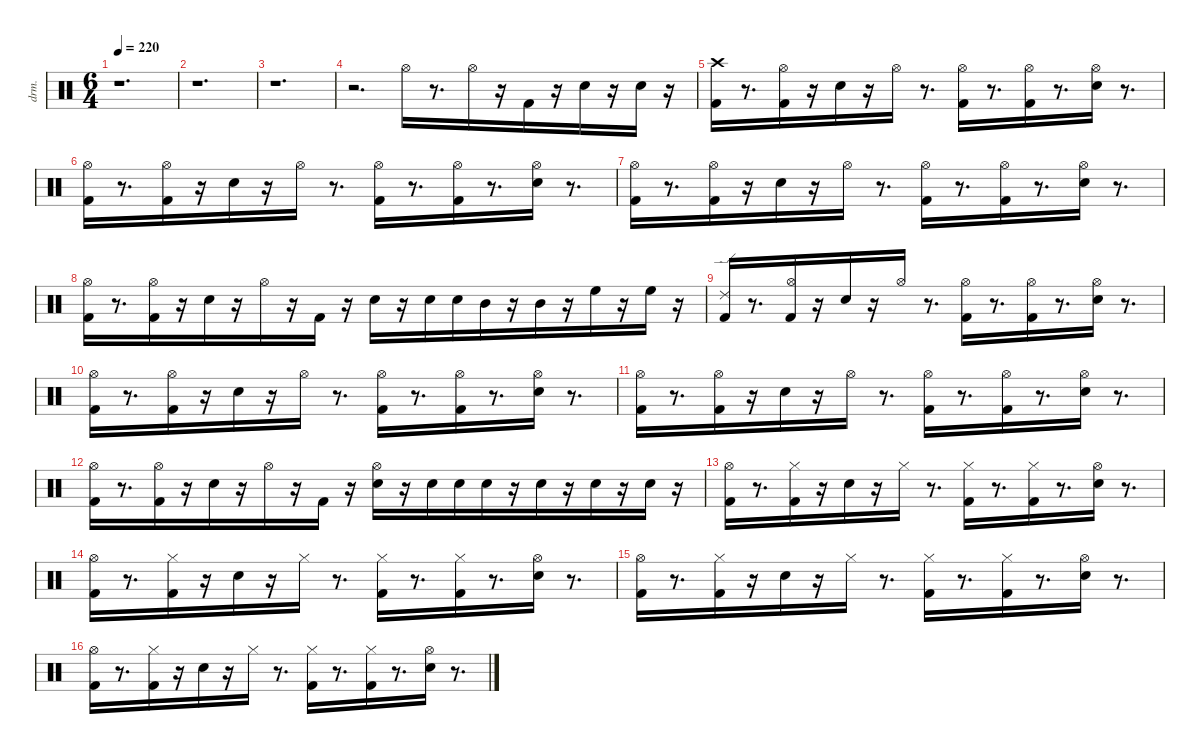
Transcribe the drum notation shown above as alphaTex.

\defaultSystemsLayout 4
\hideDynamics
\bracketExtendMode nobrackets
\otherSystemsTrackNameOrientation horizontal
\track ("EZdrummer 3" "drm.") {mute instrument percussion}
\staff {score}
\articulation defaults
\ts (6 4)
\beaming (8 6 6)
\tempo 220
\clef neutral
\ks c
r.1{d dy fff beam Down} |
r.1{d beam Down} |
r.1{d beam Down} |
r.2{d beam Down} "Hi-Hat (open)"{acc #}.16{beam Down} r.8{d beam Down} "Hi-Hat (open)"{acc #}.16{dy f beam Down} r.16{beam Down} "Kick (hit) 2".16{dy mf beam Up} r.16{beam Up} "Snare (hit) 2".16{beam Down} r.16{beam Down} "Snare (hit) 2".16{dy p beam Down} r.16{beam Down} |
("Kick (hit) 2" "Crash high (hit)"{acc #}).16{dy fff beam Down} r.8{d beam Down} ("Kick (hit) 2" "Hi-Hat (open)"{acc #}).16{dy f beam Down} r.16{beam Down} "Snare (hit) 2".16{dy ff beam Down} r.16{beam Down} "Hi-Hat (open)"{acc #}.16{dy mf beam Down} r.8{d beam Down} ("Kick (hit) 2" "Hi-Hat (open)"{acc #}).16{dy ff beam Down} r.8{d beam Down} ("Kick (hit) 2" "Hi-Hat (open)"{acc #}).16{dy f beam Down} r.8{d beam Down} ("Snare (hit) 2" "Hi-Hat (open)"{acc #}).16{dy ff beam Down} r.8{d beam Down} |
("Kick (hit) 2" "Hi-Hat (open)"{acc #}).16{dy fff beam Down} r.8{d beam Down} ("Kick (hit) 2" "Hi-Hat (open)"{acc #}).16{dy f beam Down} r.16{beam Down} "Snare (hit) 2".16{dy ff beam Down} r.16{beam Down} "Hi-Hat (open)"{acc #}.16{dy mf beam Down} r.8{d beam Down} ("Kick (hit) 2" "Hi-Hat (open)"{acc #}).16{dy ff beam Down} r.8{d beam Down} ("Kick (hit) 2" "Hi-Hat (open)"{acc #}).16{dy f beam Down} r.8{d beam Down} ("Snare (hit) 2" "Hi-Hat (open)"{acc #}).16{dy ff beam Down} r.8{d beam Down} |
("Kick (hit) 2" "Hi-Hat (open)"{acc #}).16{dy fff beam Down} r.8{d beam Down} ("Kick (hit) 2" "Hi-Hat (open)"{acc #}).16{dy f beam Down} r.16{beam Down} "Snare (hit) 2".16{dy ff beam Down} r.16{beam Down} "Hi-Hat (open)"{acc #}.16{dy mf beam Down} r.8{d beam Down} ("Kick (hit) 2" "Hi-Hat (open)"{acc #}).16{dy ff beam Down} r.8{d beam Down} ("Kick (hit) 2" "Hi-Hat (open)"{acc #}).16{dy f beam Down} r.8{d beam Down} ("Snare (hit) 2" "Hi-Hat (open)"{acc #}).16{dy ff beam Down} r.8{d beam Down} |
("Kick (hit) 2" "Hi-Hat (open)"{acc #}).16{dy fff beam Down} r.8{d beam Down} ("Kick (hit) 2" "Hi-Hat (open)"{acc #}).16{dy f beam Down} r.16{beam Down} "Snare (hit) 2".16{dy ff beam Down} r.16{beam Down} "Hi-Hat (open)"{acc #}.16{dy f beam Down} r.16{beam Down} "Kick (hit) 2".16{dy ff beam Up} r.16{beam Up} "Snare (hit) 2".16{beam Down} r.16{beam Down} "Snare (hit) 2".16{dy f beam Down} "Snare (hit) 2".16{dy p beam Down} "Mid Tom (hit)".16{dy ff beam Down} r.16{beam Down} "Mid Tom (hit)".16{dy mf beam Down} r.16{beam Down} "High Floor Tom (hit)".16{dy ff beam Down} r.16{beam Down} "High Floor Tom (hit)".16{dy f beam Down} r.16{beam Down} |
("Kick (hit) 2" "Ride (edge) 2").16{dy fff beam Up} r.8{d beam Up} ("Kick (hit) 2" "Hi-Hat (open)"{acc #}).16{dy f beam Down} r.16{beam Down} "Snare (hit) 2".16{dy ff beam Down} r.16{beam Down} "Hi-Hat (open)"{acc #}.16{dy mf beam Down} r.8{d beam Down} ("Kick (hit) 2" "Hi-Hat (open)"{acc #}).16{dy ff beam Down} r.8{d beam Down} ("Kick (hit) 2" "Hi-Hat (open)"{acc #}).16{dy f beam Down} r.8{d beam Down} ("Snare (hit) 2" "Hi-Hat (open)"{acc #}).16{dy ff beam Down} r.8{d beam Down} |
("Kick (hit) 2" "Hi-Hat (open)"{acc #}).16{dy fff beam Down} r.8{d beam Down} ("Kick (hit) 2" "Hi-Hat (open)"{acc #}).16{dy f beam Down} r.16{beam Down} "Snare (hit) 2".16{dy ff beam Down} r.16{beam Down} "Hi-Hat (open)"{acc #}.16{dy mf beam Down} r.8{d beam Down} ("Kick (hit) 2" "Hi-Hat (open)"{acc #}).16{dy ff beam Down} r.8{d beam Down} ("Kick (hit) 2" "Hi-Hat (open)"{acc #}).16{dy f beam Down} r.8{d beam Down} ("Snare (hit) 2" "Hi-Hat (open)"{acc #}).16{dy ff beam Down} r.8{d beam Down} |
("Kick (hit) 2" "Hi-Hat (open)"{acc #}).16{dy fff beam Down} r.8{d beam Down} ("Kick (hit) 2" "Hi-Hat (open)"{acc #}).16{dy f beam Down} r.16{beam Down} "Snare (hit) 2".16{dy ff beam Down} r.16{beam Down} "Hi-Hat (open)"{acc #}.16{dy f beam Down} r.8{d beam Down} ("Kick (hit) 2" "Hi-Hat (open)"{acc #}).16{dy ff beam Down} r.8{d beam Down} ("Kick (hit) 2" "Hi-Hat (open)"{acc #}).16{dy f beam Down} r.8{d beam Down} ("Snare (hit) 2" "Hi-Hat (open)"{acc #}).16{dy ff beam Down} r.8{d beam Down} |
("Kick (hit) 2" "Hi-Hat (open)"{acc #}).16{dy fff beam Down} r.8{d beam Down} ("Kick (hit) 2" "Hi-Hat (open)"{acc #}).16{dy f beam Down} r.16{beam Down} "Snare (hit) 2".16{dy ff beam Down} r.16{beam Down} "Hi-Hat (open)"{acc #}.16{dy f beam Down} r.16{beam Down} "Kick (hit) 2".16{dy ff beam Up} r.16{beam Up} ("Snare (hit) 2" "Hi-Hat (open)"{acc #}).16{beam Down} r.16{beam Down} "Snare (hit) 2".16{dy p beam Down} "Snare (hit) 2".16{dy pp beam Down} "Snare (hit) 2".16{dy mf beam Down} r.16{beam Down} "Snare (hit) 2".16{dy mp beam Down} r.16{beam Down} "Snare (hit) 2".16{dy mf beam Down} r.16{beam Down} "Snare (hit) 2".16{dy mp beam Down} r.16{beam Down} |
("Kick (hit) 2" "Hi-Hat (open)"{acc #}).16{dy fff beam Down} r.8{d beam Down} ("Kick (hit) 2" "Hi-Hat (closed)"{acc #}).16{dy f beam Down} r.16{beam Down} "Snare (hit) 2".16{dy ff beam Down} r.16{beam Down} "Hi-Hat (closed)"{acc #}.16{beam Down} r.8{d beam Down} ("Kick (hit) 2" "Hi-Hat (closed)"{acc #}).16{beam Down} r.8{d beam Down} ("Kick (hit) 2" "Hi-Hat (closed)"{acc #}).16{dy f beam Down} r.8{d beam Down} ("Snare (hit) 2" "Hi-Hat (open)"{acc #}).16{dy ff beam Down} r.8{d beam Down} |
("Kick (hit) 2" "Hi-Hat (open)"{acc #}).16{dy fff beam Down} r.8{d beam Down} ("Kick (hit) 2" "Hi-Hat (closed)"{acc #}).16{dy f beam Down} r.16{beam Down} "Snare (hit) 2".16{dy ff beam Down} r.16{beam Down} "Hi-Hat (closed)"{acc #}.16{beam Down} r.8{d beam Down} ("Kick (hit) 2" "Hi-Hat (closed)"{acc #}).16{beam Down} r.8{d beam Down} ("Kick (hit) 2" "Hi-Hat (closed)"{acc #}).16{dy f beam Down} r.8{d beam Down} ("Snare (hit) 2" "Hi-Hat (open)"{acc #}).16{dy ff beam Down} r.8{d beam Down} |
("Kick (hit) 2" "Hi-Hat (open)"{acc #}).16{dy fff beam Down} r.8{d beam Down} ("Kick (hit) 2" "Hi-Hat (closed)"{acc #}).16{dy f beam Down} r.16{beam Down} "Snare (hit) 2".16{dy ff beam Down} r.16{beam Down} "Hi-Hat (closed)"{acc #}.16{beam Down} r.8{d beam Down} ("Kick (hit) 2" "Hi-Hat (closed)"{acc #}).16{beam Down} r.8{d beam Down} ("Kick (hit) 2" "Hi-Hat (closed)"{acc #}).16{dy f beam Down} r.8{d beam Down} ("Snare (hit) 2" "Hi-Hat (open)"{acc #}).16{dy ff beam Down} r.8{d beam Down} |
("Kick (hit) 2" "Hi-Hat (open)"{acc #}).16{dy fff beam Down} r.8{d beam Down} ("Kick (hit) 2" "Hi-Hat (closed)"{acc #}).16{dy f beam Down} r.16{beam Down} "Snare (hit) 2".16{dy ff beam Down} r.16{beam Down} "Hi-Hat (closed)"{acc #}.16{beam Down} r.8{d beam Down} ("Kick (hit) 2" "Hi-Hat (closed)"{acc #}).16{beam Down} r.8{d beam Down} ("Kick (hit) 2" "Hi-Hat (closed)"{acc #}).16{dy f beam Down} r.8{d beam Down} ("Snare (hit) 2" "Hi-Hat (open)"{acc #}).16{dy ff beam Down} r.8{d beam Down}
